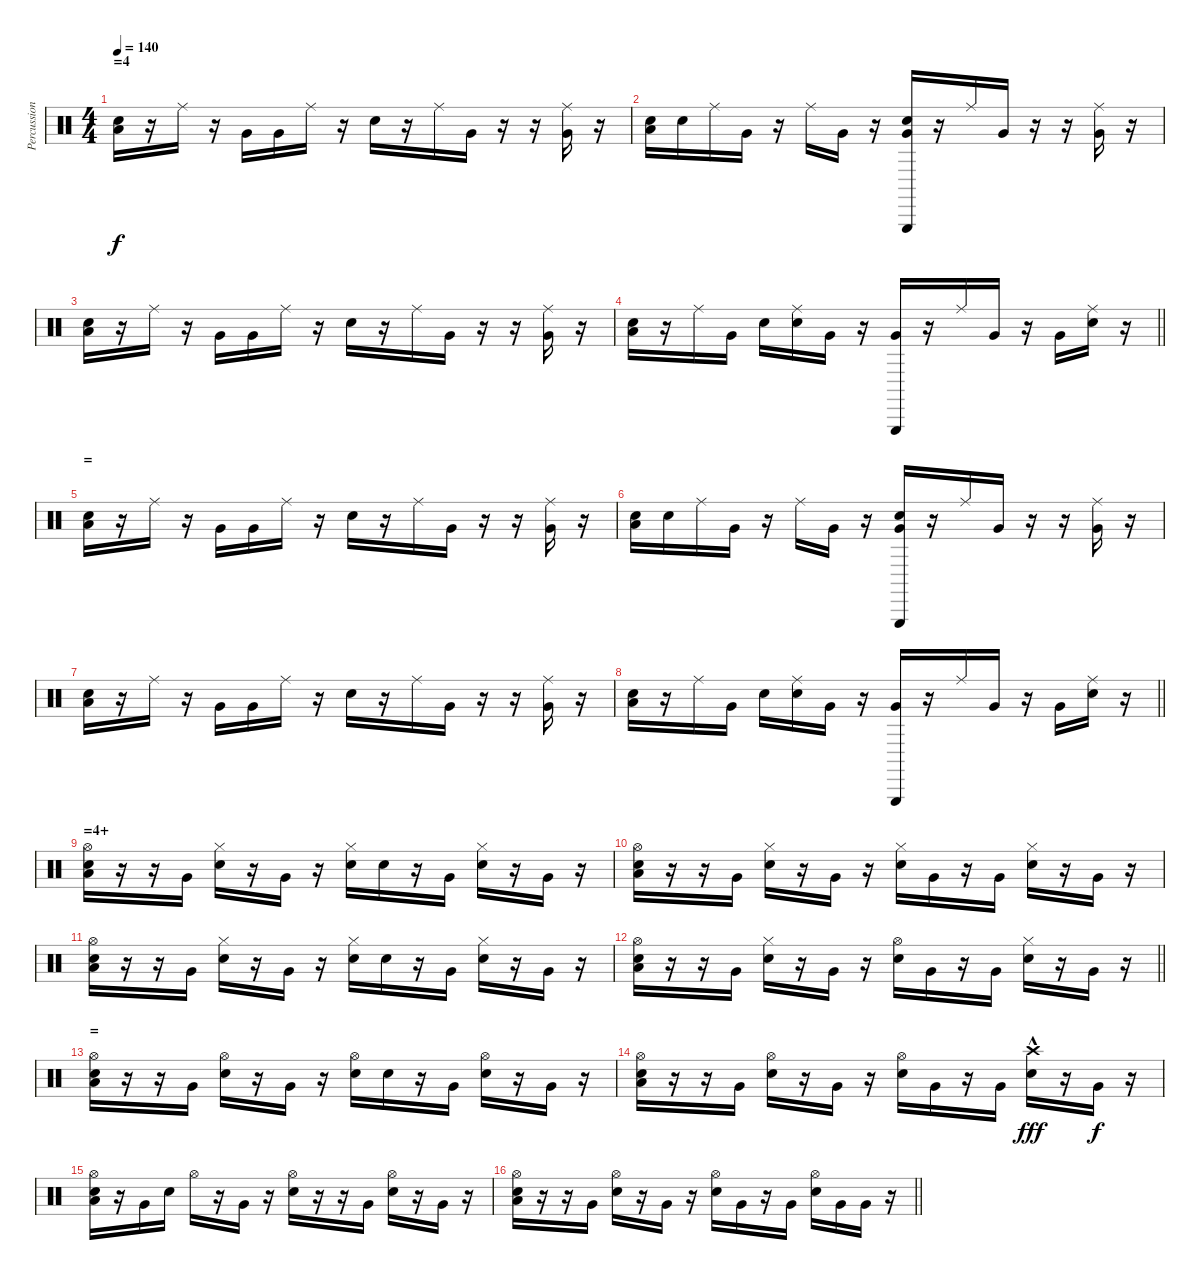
\track ("Percussion" "Percussion") {instrument percussion}
\staff {score}
\articulation defaults
\ts (4 4)
\section ("" "=4")
\tempo 140
\clef neutral
\ks c
("Low Floor Tom (hit)" "Electric Snare (hit)").16{dy f} r.16 "Ride (middle)".16 r.16 "Very Low Tom (hit)".16 "Very Low Tom (hit)".16 "Ride (middle)".16 r.16 "Electric Snare (hit)".16 r.16 "Ride (middle)".16 "Very Low Tom (hit)".16 r.16 r.16 ("Very Low Tom (hit)" "Ride (middle)").16 r.16 |
("Low Floor Tom (hit)" "Electric Snare (hit)").16 "Electric Snare (hit)".16 "Ride (middle)".16 "Very Low Tom (hit)".16 r.16 "Ride (middle)".16 "Very Low Tom (hit)".16 r.16 ("Very Low Tom (hit)" "Electric Snare (hit)" "Triangle (hit)").16 r.16 "Ride (middle)".16 "Very Low Tom (hit)".16 r.16 r.16 ("Very Low Tom (hit)" "Ride (middle)").16 r.16 |
("Low Floor Tom (hit)" "Electric Snare (hit)").16 r.16 "Ride (middle)".16 r.16 "Very Low Tom (hit)".16 "Very Low Tom (hit)".16 "Ride (middle)".16 r.16 "Electric Snare (hit)".16 r.16 "Ride (middle)".16 "Very Low Tom (hit)".16 r.16 r.16 ("Very Low Tom (hit)" "Ride (middle)").16 r.16 |
\barLineRight lightlight
("Low Floor Tom (hit)" "Electric Snare (hit)").16 r.16 "Ride (middle)".16 "Very Low Tom (hit)".16 "Electric Snare (hit)".16 ("Electric Snare (hit)" "Ride (middle)").16 "Very Low Tom (hit)".16 r.16 ("Very Low Tom (hit)" "Triangle (hit)").16 r.16 "Ride (middle)".16 "Very Low Tom (hit)".16 r.16 "Very Low Tom (hit)".16 ("Electric Snare (hit)" "Ride (middle)").16 r.16 |
\section ("" "=")
("Low Floor Tom (hit)" "Electric Snare (hit)").16 r.16 "Ride (middle)".16 r.16 "Very Low Tom (hit)".16 "Very Low Tom (hit)".16 "Ride (middle)".16 r.16 "Electric Snare (hit)".16 r.16 "Ride (middle)".16 "Very Low Tom (hit)".16 r.16 r.16 ("Very Low Tom (hit)" "Ride (middle)").16 r.16 |
("Low Floor Tom (hit)" "Electric Snare (hit)").16 "Electric Snare (hit)".16 "Ride (middle)".16 "Very Low Tom (hit)".16 r.16 "Ride (middle)".16 "Very Low Tom (hit)".16 r.16 ("Very Low Tom (hit)" "Electric Snare (hit)" "Triangle (hit)").16 r.16 "Ride (middle)".16 "Very Low Tom (hit)".16 r.16 r.16 ("Very Low Tom (hit)" "Ride (middle)").16 r.16 |
("Low Floor Tom (hit)" "Electric Snare (hit)").16 r.16 "Ride (middle)".16 r.16 "Very Low Tom (hit)".16 "Very Low Tom (hit)".16 "Ride (middle)".16 r.16 "Electric Snare (hit)".16 r.16 "Ride (middle)".16 "Very Low Tom (hit)".16 r.16 r.16 ("Very Low Tom (hit)" "Ride (middle)").16 r.16 |
\barLineRight lightlight
("Low Floor Tom (hit)" "Electric Snare (hit)").16 r.16 "Ride (middle)".16 "Very Low Tom (hit)".16 "Electric Snare (hit)".16 ("Electric Snare (hit)" "Ride (middle)").16 "Very Low Tom (hit)".16 r.16 ("Very Low Tom (hit)" "Triangle (hit)").16 r.16 "Ride (middle)".16 "Very Low Tom (hit)".16 r.16 "Very Low Tom (hit)".16 ("Electric Snare (hit)" "Ride (middle)").16 r.16 |
\section ("" "=4+")
("Low Floor Tom (hit)" "Electric Snare (hit)" "Hi-Hat (open)").16 r.16 r.16 "Very Low Tom (hit)".16 ("Electric Snare (hit)" "Hi-Hat (closed)").16 r.16 "Very Low Tom (hit)".16 r.16 ("Electric Snare (hit)" "Hi-Hat (closed)").16 "Electric Snare (hit)".16 r.16 "Very Low Tom (hit)".16 ("Electric Snare (hit)" "Hi-Hat (closed)").16 r.16 "Very Low Tom (hit)".16 r.16 |
("Low Floor Tom (hit)" "Electric Snare (hit)" "Hi-Hat (open)").16 r.16 r.16 "Very Low Tom (hit)".16 ("Electric Snare (hit)" "Hi-Hat (closed)").16 r.16 "Very Low Tom (hit)".16 r.16 ("Electric Snare (hit)" "Hi-Hat (closed)").16 "Very Low Tom (hit)".16 r.16 "Very Low Tom (hit)".16 ("Electric Snare (hit)" "Hi-Hat (closed)").16 r.16 "Very Low Tom (hit)".16 r.16 |
("Low Floor Tom (hit)" "Electric Snare (hit)" "Hi-Hat (open)").16 r.16 r.16 "Very Low Tom (hit)".16 ("Electric Snare (hit)" "Hi-Hat (closed)").16 r.16 "Very Low Tom (hit)".16 r.16 ("Electric Snare (hit)" "Hi-Hat (closed)").16 "Electric Snare (hit)".16 r.16 "Very Low Tom (hit)".16 ("Electric Snare (hit)" "Hi-Hat (closed)").16 r.16 "Very Low Tom (hit)".16 r.16 |
\barLineRight lightlight
("Low Floor Tom (hit)" "Electric Snare (hit)" "Hi-Hat (open)").16 r.16 r.16 "Very Low Tom (hit)".16 ("Electric Snare (hit)" "Hi-Hat (closed)").16 r.16 "Very Low Tom (hit)".16 r.16 ("Electric Snare (hit)" "Hi-Hat (open)").16 "Very Low Tom (hit)".16 r.16 "Very Low Tom (hit)".16 ("Electric Snare (hit)" "Hi-Hat (closed)").16 r.16 "Very Low Tom (hit)".16 r.16 |
\section ("" "=")
("Low Floor Tom (hit)" "Electric Snare (hit)" "Hi-Hat (open)").16 r.16 r.16 "Very Low Tom (hit)".16 ("Electric Snare (hit)" "Hi-Hat (open)").16 r.16 "Very Low Tom (hit)".16 r.16 ("Electric Snare (hit)" "Hi-Hat (open)").16 "Electric Snare (hit)".16 r.16 "Very Low Tom (hit)".16 ("Electric Snare (hit)" "Hi-Hat (open)").16 r.16 "Very Low Tom (hit)".16 r.16 |
("Low Floor Tom (hit)" "Electric Snare (hit)" "Hi-Hat (open)").16 r.16 r.16 "Very Low Tom (hit)".16 ("Electric Snare (hit)" "Hi-Hat (open)").16 r.16 "Very Low Tom (hit)".16 r.16 ("Electric Snare (hit)" "Hi-Hat (open)").16 "Very Low Tom (hit)".16 r.16 "Very Low Tom (hit)".16 ("Electric Snare (hit)" "Crash high (hit)"{hac}).16{dy fff} r.16 "Very Low Tom (hit)".16{dy f} r.16 |
("Low Floor Tom (hit)" "Electric Snare (hit)" "Hi-Hat (open)").16 r.16 "Very Low Tom (hit)".16 "Electric Snare (hit)".16 "Hi-Hat (open)".16 r.16 "Very Low Tom (hit)".16 r.16 ("Electric Snare (hit)" "Hi-Hat (open)").16 r.16 r.16 "Very Low Tom (hit)".16 ("Electric Snare (hit)" "Hi-Hat (open)").16 r.16 "Very Low Tom (hit)".16 r.16 |
\barLineRight lightlight
("Low Floor Tom (hit)" "Electric Snare (hit)" "Hi-Hat (open)").16 r.16 r.16 "Very Low Tom (hit)".16 ("Electric Snare (hit)" "Hi-Hat (open)").16 r.16 "Very Low Tom (hit)".16 r.16 ("Electric Snare (hit)" "Hi-Hat (open)").16 "Very Low Tom (hit)".16 r.16 "Very Low Tom (hit)".16 ("Electric Snare (hit)" "Hi-Hat (open)").16 "Very Low Tom (hit)".16 "Very Low Tom (hit)".16 r.16
